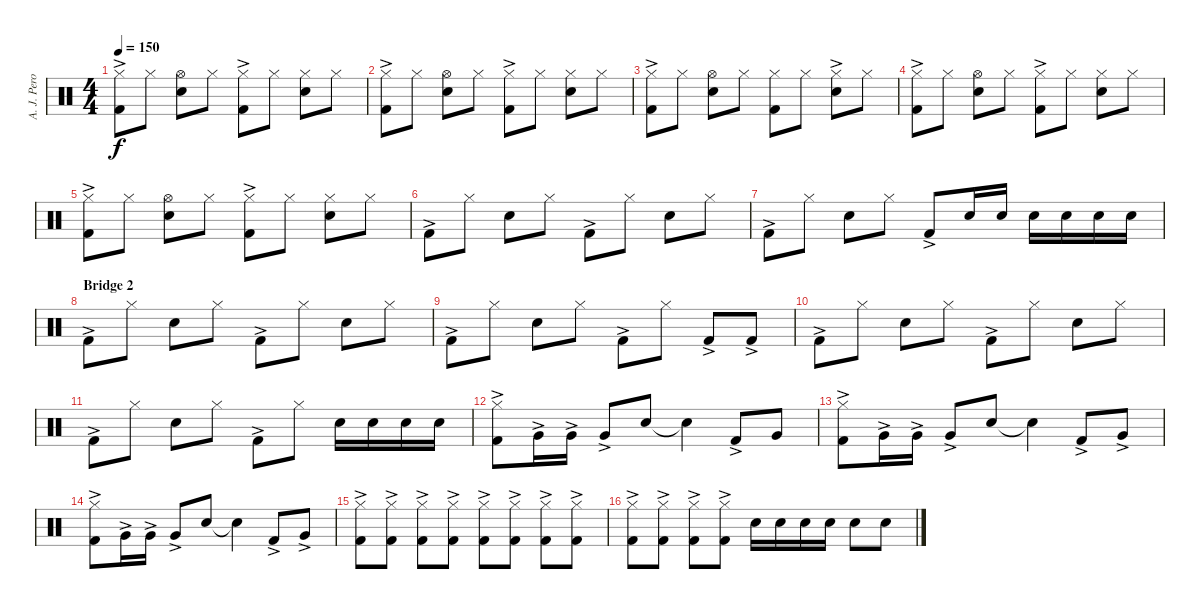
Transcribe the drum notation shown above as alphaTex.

\track ("A. J. Pero - Drums" "A. J. Pero") {instrument percussion}
\staff {score}
\articulation defaults
\ts (4 4)
\tempo 150
\clef neutral
\ks c
("Hi-Hat (closed)" "Kick (hit) 2"{ac}).8{dy f} "Hi-Hat (closed)".8 ("Hi-Hat (open)" "Electric Snare (hit)").8 "Hi-Hat (closed)".8 ("Hi-Hat (closed)" "Kick (hit) 2"{ac}).8 "Hi-Hat (closed)".8 ("Hi-Hat (closed)" "Electric Snare (hit)").8 "Hi-Hat (closed)".8 |
("Hi-Hat (closed)" "Kick (hit) 2"{ac}).8 "Hi-Hat (closed)".8 ("Hi-Hat (open)" "Electric Snare (hit)").8 "Hi-Hat (closed)".8 ("Hi-Hat (closed)" "Kick (hit) 2"{ac}).8 "Hi-Hat (closed)".8 ("Hi-Hat (closed)" "Electric Snare (hit)").8 "Hi-Hat (closed)".8 |
("Hi-Hat (closed)" "Kick (hit) 2"{ac}).8 "Hi-Hat (closed)".8 ("Hi-Hat (open)" "Electric Snare (hit)").8 "Hi-Hat (closed)".8 ("Hi-Hat (closed)" "Kick (hit) 2").8 "Hi-Hat (closed)".8 ("Hi-Hat (closed)" "Electric Snare (hit)"{ac}).8 "Hi-Hat (closed)".8 |
("Hi-Hat (closed)" "Kick (hit) 2"{ac}).8 "Hi-Hat (closed)".8 ("Hi-Hat (open)" "Electric Snare (hit)").8 "Hi-Hat (closed)".8 ("Hi-Hat (closed)" "Kick (hit) 2"{ac}).8 "Hi-Hat (closed)".8 ("Hi-Hat (closed)" "Electric Snare (hit)").8 "Hi-Hat (closed)".8 |
("Hi-Hat (closed)" "Kick (hit) 2"{ac}).8 "Hi-Hat (closed)".8 ("Hi-Hat (open)" "Electric Snare (hit)").8 "Hi-Hat (closed)".8 ("Hi-Hat (closed)" "Kick (hit) 2"{ac}).8 "Hi-Hat (closed)".8 ("Hi-Hat (closed)" "Electric Snare (hit)").8 "Hi-Hat (closed)".8 |
"Kick (hit) 2"{ac}.8 "Hi-Hat (closed)".8 "Electric Snare (hit)".8 "Hi-Hat (closed)".8 "Kick (hit) 2"{ac}.8 "Hi-Hat (closed)".8 "Electric Snare (hit)".8 "Hi-Hat (closed)".8 |
"Kick (hit) 2"{ac}.8 "Hi-Hat (closed)".8 "Electric Snare (hit)".8 "Hi-Hat (closed)".8 "Kick (hit) 2"{ac}.8 "Electric Snare (hit)".16 "Electric Snare (hit)".16 "Electric Snare (hit)".16 "Electric Snare (hit)".16 "Electric Snare (hit)".16 "Electric Snare (hit)".16 |
\section ("" "Bridge 2")
"Kick (hit) 2"{ac}.8 "Hi-Hat (closed)".8 "Electric Snare (hit)".8 "Hi-Hat (closed)".8 "Kick (hit) 2"{ac}.8 "Hi-Hat (closed)".8 "Electric Snare (hit)".8 "Hi-Hat (closed)".8 |
"Kick (hit) 2"{ac}.8 "Hi-Hat (closed)".8 "Electric Snare (hit)".8 "Hi-Hat (closed)".8 "Kick (hit) 2"{ac}.8 "Hi-Hat (closed)".8 "Kick (hit) 2"{ac}.8 "Kick (hit) 2"{ac}.8 |
"Kick (hit) 2"{ac}.8 "Hi-Hat (closed)".8 "Electric Snare (hit)".8 "Hi-Hat (closed)".8 "Kick (hit) 2"{ac}.8 "Hi-Hat (closed)".8 "Electric Snare (hit)".8 "Hi-Hat (closed)".8 |
"Kick (hit) 2"{ac}.8 "Hi-Hat (closed)".8 "Electric Snare (hit)".8 "Hi-Hat (closed)".8 "Kick (hit) 2"{ac}.8 "Hi-Hat (closed)".8 "Electric Snare (hit)".16 "Electric Snare (hit)".16 "Electric Snare (hit)".16 "Electric Snare (hit)".16 |
("Hi-Hat (closed)" "Kick (hit) 2"{ac}).8 "Very Low Tom (hit)"{ac}.16 "Very Low Tom (hit)"{ac}.16 "Very Low Tom (hit)"{ac}.8 "Electric Snare (hit)".8 "Electric Snare (hit)"{t}.4 "Kick (hit) 2"{ac}.8 "Very Low Tom (hit)".8 |
("Hi-Hat (closed)" "Kick (hit) 2"{ac}).8 "Very Low Tom (hit)"{ac}.16 "Very Low Tom (hit)"{ac}.16 "Very Low Tom (hit)"{ac}.8 "Electric Snare (hit)".8 "Electric Snare (hit)"{t}.4 "Kick (hit) 2"{ac}.8 "Very Low Tom (hit)"{ac}.8 |
("Hi-Hat (closed)" "Kick (hit) 2"{ac}).8 "Very Low Tom (hit)"{ac}.16 "Very Low Tom (hit)"{ac}.16 "Very Low Tom (hit)"{ac}.8 "Electric Snare (hit)".8 "Electric Snare (hit)"{t}.4 "Kick (hit) 2"{ac}.8 "Very Low Tom (hit)"{ac}.8 |
("Hi-Hat (closed)" "Kick (hit) 2"{ac}).8 ("Hi-Hat (closed)" "Kick (hit) 2"{ac}).8 ("Hi-Hat (closed)" "Kick (hit) 2"{ac}).8 ("Hi-Hat (closed)" "Kick (hit) 2"{ac}).8 ("Hi-Hat (closed)" "Kick (hit) 2"{ac}).8 ("Hi-Hat (closed)" "Kick (hit) 2"{ac}).8 ("Hi-Hat (closed)" "Kick (hit) 2"{ac}).8 ("Hi-Hat (closed)" "Kick (hit) 2"{ac}).8 |
("Hi-Hat (closed)" "Kick (hit) 2"{ac}).8 ("Hi-Hat (closed)" "Kick (hit) 2"{ac}).8 ("Hi-Hat (closed)" "Kick (hit) 2"{ac}).8 ("Hi-Hat (closed)" "Kick (hit) 2"{ac}).8 "Electric Snare (hit)".16 "Electric Snare (hit)".16 "Electric Snare (hit)".16 "Electric Snare (hit)".16 "Electric Snare (hit)".8 "Electric Snare (hit)".8
